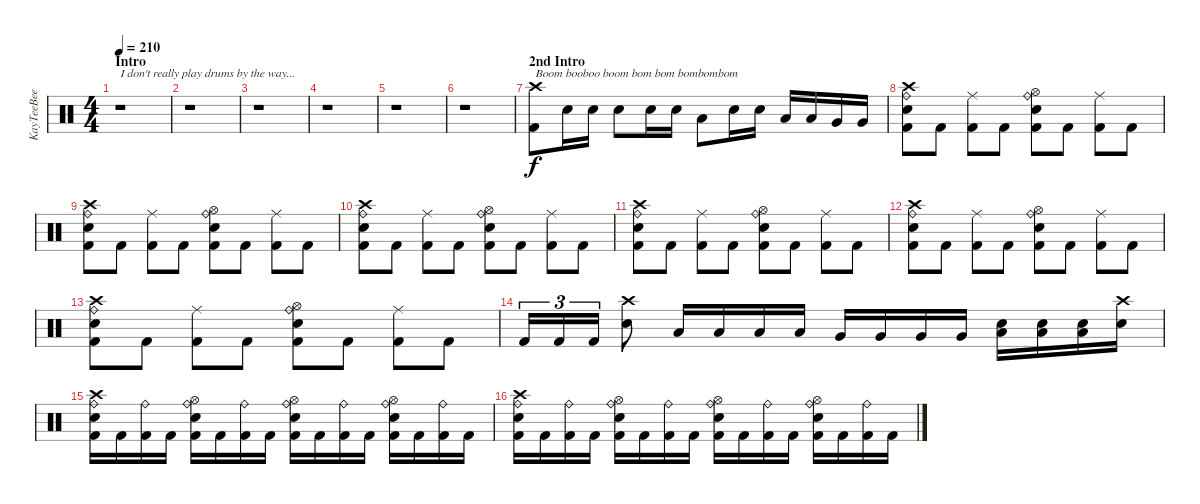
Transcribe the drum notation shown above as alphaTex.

\track ("KayTeeBee" "KayTeeBee") {instrument percussion}
\staff {score}
\articulation defaults
\ts (4 4)
\section ("" "Intro")
\tempo 210
\clef neutral
\ks c
r.1{txt "I don't really play drums by the way..." dy f} |
r.1 |
r.1 |
r.1 |
r.1 |
r.1 |
\section ("" "2nd Intro")
("Crash high (hit)" "Kick (hit) 2").8{txt "Boom booboo boom bom bom bombombom"} "Electric Snare (hit)".16 "Electric Snare (hit)".16 "Electric Snare (hit)".8 "Electric Snare (hit)".16 "Electric Snare (hit)".16 "Low Tom (hit)".8 "Electric Snare (hit)".16 "Electric Snare (hit)".16 "Low Tom (hit)".16 "Low Tom (hit)".16 "Very Low Tom (hit)".16 "Very Low Tom (hit)".16 |
("Kick (hit) 2" "Crash high (hit)" "Ride (bell)" "Electric Snare (hit)").8 "Kick (hit) 2".8 ("Kick (hit) 2" "Ride (middle)").8 "Kick (hit) 2".8 ("Kick (hit) 2" "Electric Snare (hit)" "Ride (bell)" "Hi-Hat (open)").8 "Kick (hit) 2".8 ("Kick (hit) 2" "Ride (middle)").8 "Kick (hit) 2".8 |
("Kick (hit) 2" "Crash high (hit)" "Ride (bell)" "Electric Snare (hit)").8 "Kick (hit) 2".8 ("Kick (hit) 2" "Ride (middle)").8 "Kick (hit) 2".8 ("Kick (hit) 2" "Electric Snare (hit)" "Ride (bell)" "Hi-Hat (open)").8 "Kick (hit) 2".8 ("Kick (hit) 2" "Ride (middle)").8 "Kick (hit) 2".8 |
("Kick (hit) 2" "Crash high (hit)" "Ride (bell)" "Electric Snare (hit)").8 "Kick (hit) 2".8 ("Kick (hit) 2" "Ride (middle)").8 "Kick (hit) 2".8 ("Kick (hit) 2" "Electric Snare (hit)" "Ride (bell)" "Hi-Hat (open)").8 "Kick (hit) 2".8 ("Kick (hit) 2" "Ride (middle)").8 "Kick (hit) 2".8 |
("Kick (hit) 2" "Crash high (hit)" "Ride (bell)" "Electric Snare (hit)").8 "Kick (hit) 2".8 ("Kick (hit) 2" "Ride (middle)").8 "Kick (hit) 2".8 ("Kick (hit) 2" "Electric Snare (hit)" "Ride (bell)" "Hi-Hat (open)").8 "Kick (hit) 2".8 ("Kick (hit) 2" "Ride (middle)").8 "Kick (hit) 2".8 |
("Kick (hit) 2" "Crash high (hit)" "Ride (bell)" "Electric Snare (hit)").8 "Kick (hit) 2".8 ("Kick (hit) 2" "Ride (middle)").8 "Kick (hit) 2".8 ("Kick (hit) 2" "Electric Snare (hit)" "Ride (bell)" "Hi-Hat (open)").8 "Kick (hit) 2".8 ("Kick (hit) 2" "Ride (middle)").8 "Kick (hit) 2".8 |
("Kick (hit) 2" "Crash high (hit)" "Ride (bell)" "Electric Snare (hit)").8 "Kick (hit) 2".8 ("Kick (hit) 2" "Ride (middle)").8 "Kick (hit) 2".8 ("Kick (hit) 2" "Electric Snare (hit)" "Ride (bell)" "Hi-Hat (open)").8 "Kick (hit) 2".8 ("Kick (hit) 2" "Ride (middle)").8 "Kick (hit) 2".8 |
"Kick (hit) 2".16{tu (3 2)} "Kick (hit) 2".16{tu (3 2)} "Kick (hit) 2".16{tu (3 2)} ("Electric Snare (hit)" "Crash high (hit)").8 "Low Tom (hit)".16 "Low Tom (hit)".16 "Low Tom (hit)".16 "Low Tom (hit)".16 "Very Low Tom (hit)".16 "Very Low Tom (hit)".16 "Very Low Tom (hit)".16 "Very Low Tom (hit)".16 ("Low Floor Tom (hit)" "Electric Snare (hit)").16 ("Low Floor Tom (hit)" "Electric Snare (hit)").16 ("Low Floor Tom (hit)" "Electric Snare (hit)").16 ("Crash high (hit)" "Electric Snare (hit)").16 |
("Kick (hit) 2" "Electric Snare (hit)" "Ride (bell)" "Crash high (hit)").16 "Kick (hit) 2".16 ("Kick (hit) 2" "Ride (bell)").16 "Kick (hit) 2".16 ("Kick (hit) 2" "Electric Snare (hit)" "Ride (bell)" "Hi-Hat (open)").16 "Kick (hit) 2".16 ("Kick (hit) 2" "Ride (bell)").16 "Kick (hit) 2".16 ("Kick (hit) 2" "Electric Snare (hit)" "Ride (bell)" "Hi-Hat (open)").16 "Kick (hit) 2".16 ("Kick (hit) 2" "Ride (bell)").16 "Kick (hit) 2".16 ("Kick (hit) 2" "Electric Snare (hit)" "Ride (bell)" "Hi-Hat (open)").16 "Kick (hit) 2".16 ("Kick (hit) 2" "Ride (bell)").16 "Kick (hit) 2".16 |
("Kick (hit) 2" "Electric Snare (hit)" "Ride (bell)" "Crash high (hit)").16 "Kick (hit) 2".16 ("Kick (hit) 2" "Ride (bell)").16 "Kick (hit) 2".16 ("Kick (hit) 2" "Electric Snare (hit)" "Ride (bell)" "Hi-Hat (open)").16 "Kick (hit) 2".16 ("Kick (hit) 2" "Ride (bell)").16 "Kick (hit) 2".16 ("Kick (hit) 2" "Electric Snare (hit)" "Ride (bell)" "Hi-Hat (open)").16 "Kick (hit) 2".16 ("Kick (hit) 2" "Ride (bell)").16 "Kick (hit) 2".16 ("Kick (hit) 2" "Electric Snare (hit)" "Ride (bell)" "Hi-Hat (open)").16 "Kick (hit) 2".16 ("Kick (hit) 2" "Ride (bell)").16 "Kick (hit) 2".16
